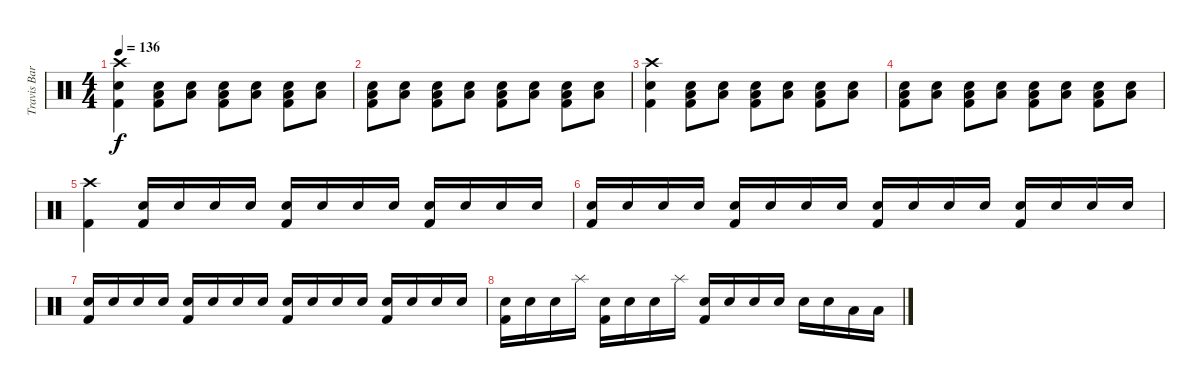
\track ("Travis Barker" "Travis Bar") {instrument percussion}
\staff {score}
\articulation defaults
\ts (4 4)
\tempo 136
\clef neutral
\ks c
("Crash high (hit)" "Snare (hit) 2" "Kick (hit) 2").4{dy f} ("Low Floor Tom (hit)" "Snare (hit) 2" "Kick (hit) 2").8 ("Low Floor Tom (hit)" "Snare (hit) 2").8 ("Low Floor Tom (hit)" "Snare (hit) 2" "Kick (hit) 2").8 ("Low Floor Tom (hit)" "Snare (hit) 2").8 ("Low Floor Tom (hit)" "Snare (hit) 2" "Kick (hit) 2").8 ("Low Floor Tom (hit)" "Snare (hit) 2").8 |
("Low Floor Tom (hit)" "Snare (hit) 2" "Kick (hit) 2").8 ("Low Floor Tom (hit)" "Snare (hit) 2").8 ("Low Floor Tom (hit)" "Snare (hit) 2" "Kick (hit) 2").8 ("Low Floor Tom (hit)" "Snare (hit) 2").8 ("Low Floor Tom (hit)" "Snare (hit) 2" "Kick (hit) 2").8 ("Low Floor Tom (hit)" "Snare (hit) 2").8 ("Low Floor Tom (hit)" "Snare (hit) 2" "Kick (hit) 2").8 ("Low Floor Tom (hit)" "Snare (hit) 2").8 |
("Crash high (hit)" "Snare (hit) 2" "Kick (hit) 2").4 ("Low Floor Tom (hit)" "Snare (hit) 2" "Kick (hit) 2").8 ("Low Floor Tom (hit)" "Snare (hit) 2").8 ("Low Floor Tom (hit)" "Snare (hit) 2" "Kick (hit) 2").8 ("Low Floor Tom (hit)" "Snare (hit) 2").8 ("Low Floor Tom (hit)" "Snare (hit) 2" "Kick (hit) 2").8 ("Low Floor Tom (hit)" "Snare (hit) 2").8 |
("Low Floor Tom (hit)" "Snare (hit) 2" "Kick (hit) 2").8 ("Low Floor Tom (hit)" "Snare (hit) 2").8 ("Low Floor Tom (hit)" "Snare (hit) 2" "Kick (hit) 2").8 ("Low Floor Tom (hit)" "Snare (hit) 2").8 ("Low Floor Tom (hit)" "Snare (hit) 2" "Kick (hit) 2").8 ("Low Floor Tom (hit)" "Snare (hit) 2").8 ("Low Floor Tom (hit)" "Snare (hit) 2" "Kick (hit) 2").8 ("Low Floor Tom (hit)" "Snare (hit) 2").8 |
("Crash high (hit)" "Kick (hit) 2").4 ("Snare (hit) 2" "Kick (hit) 2").16 "Snare (hit) 2".16 "Snare (hit) 2".16 "Snare (hit) 2".16 ("Snare (hit) 2" "Kick (hit) 2").16 "Snare (hit) 2".16 "Snare (hit) 2".16 "Snare (hit) 2".16 ("Snare (hit) 2" "Kick (hit) 2").16 "Snare (hit) 2".16 "Snare (hit) 2".16 "Snare (hit) 2".16 |
("Snare (hit) 2" "Kick (hit) 2").16 "Snare (hit) 2".16 "Snare (hit) 2".16 "Snare (hit) 2".16 ("Snare (hit) 2" "Kick (hit) 2").16 "Snare (hit) 2".16 "Snare (hit) 2".16 "Snare (hit) 2".16 ("Snare (hit) 2" "Kick (hit) 2").16 "Snare (hit) 2".16 "Snare (hit) 2".16 "Snare (hit) 2".16 ("Snare (hit) 2" "Kick (hit) 2").16 "Snare (hit) 2".16 "Snare (hit) 2".16 "Snare (hit) 2".16 |
("Snare (hit) 2" "Kick (hit) 2").16 "Snare (hit) 2".16 "Snare (hit) 2".16 "Snare (hit) 2".16 ("Snare (hit) 2" "Kick (hit) 2").16 "Snare (hit) 2".16 "Snare (hit) 2".16 "Snare (hit) 2".16 ("Snare (hit) 2" "Kick (hit) 2").16 "Snare (hit) 2".16 "Snare (hit) 2".16 "Snare (hit) 2".16 ("Snare (hit) 2" "Kick (hit) 2").16 "Snare (hit) 2".16 "Snare (hit) 2".16 "Snare (hit) 2".16 |
("Snare (hit) 2" "Kick (hit) 2").16 "Snare (hit) 2".16 "Snare (hit) 2".16 "Splash (hit)".16 ("Snare (hit) 2" "Kick (hit) 2").16 "Snare (hit) 2".16 "Snare (hit) 2".16 "Splash (hit)".16 ("Snare (hit) 2" "Kick (hit) 2").16 "Snare (hit) 2".16 "Snare (hit) 2".16 "Snare (hit) 2".16 "Snare (hit) 2".16 "Snare (hit) 2".16 "Low Tom (hit)".16 "Low Tom (hit)".16
